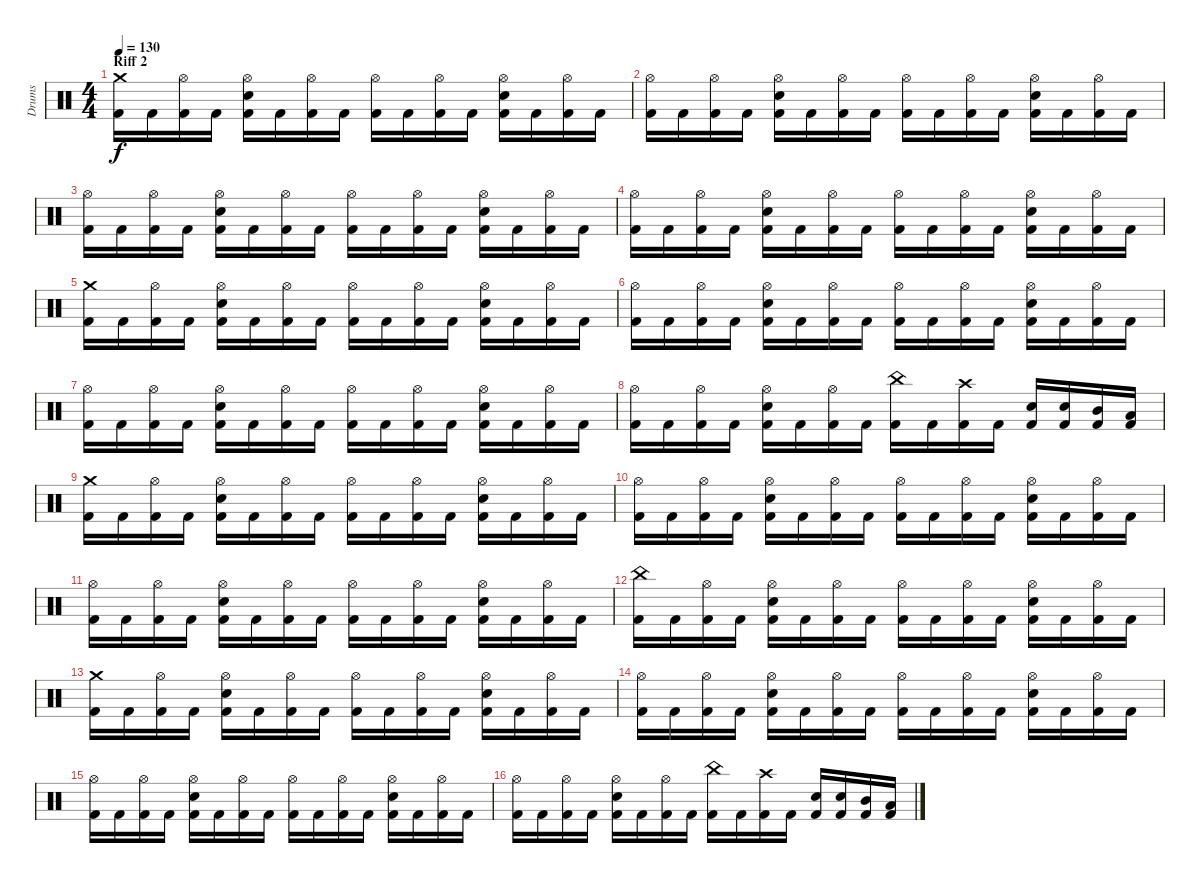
\track ("Drums" "Drums") {instrument percussion}
\staff {score}
\articulation defaults
\ts (4 4)
\section ("" "Riff 2")
\tempo 130
\clef neutral
\ks c
("Kick (hit) 2" "Crash medium (hit)").16{dy f} "Kick (hit) 2".16 ("Kick (hit) 2" "Hi-Hat (open)").16 "Kick (hit) 2".16 ("Kick (hit) 2" "Snare (hit) 2" "Hi-Hat (open)").16 "Kick (hit) 2".16 ("Kick (hit) 2" "Hi-Hat (open)").16 "Kick (hit) 2".16 ("Kick (hit) 2" "Hi-Hat (open)").16 "Kick (hit) 2".16 ("Kick (hit) 2" "Hi-Hat (open)").16 "Kick (hit) 2".16 ("Kick (hit) 2" "Snare (hit) 2" "Hi-Hat (open)").16 "Kick (hit) 2".16 ("Kick (hit) 2" "Hi-Hat (open)").16 "Kick (hit) 2".16 |
("Kick (hit) 2" "Hi-Hat (open)").16 "Kick (hit) 2".16 ("Kick (hit) 2" "Hi-Hat (open)").16 "Kick (hit) 2".16 ("Kick (hit) 2" "Snare (hit) 2" "Hi-Hat (open)").16 "Kick (hit) 2".16 ("Kick (hit) 2" "Hi-Hat (open)").16 "Kick (hit) 2".16 ("Kick (hit) 2" "Hi-Hat (open)").16 "Kick (hit) 2".16 ("Kick (hit) 2" "Hi-Hat (open)").16 "Kick (hit) 2".16 ("Kick (hit) 2" "Snare (hit) 2" "Hi-Hat (open)").16 "Kick (hit) 2".16 ("Kick (hit) 2" "Hi-Hat (open)").16 "Kick (hit) 2".16 |
("Kick (hit) 2" "Hi-Hat (open)").16 "Kick (hit) 2".16 ("Kick (hit) 2" "Hi-Hat (open)").16 "Kick (hit) 2".16 ("Kick (hit) 2" "Snare (hit) 2" "Hi-Hat (open)").16 "Kick (hit) 2".16 ("Kick (hit) 2" "Hi-Hat (open)").16 "Kick (hit) 2".16 ("Kick (hit) 2" "Hi-Hat (open)").16 "Kick (hit) 2".16 ("Kick (hit) 2" "Hi-Hat (open)").16 "Kick (hit) 2".16 ("Kick (hit) 2" "Snare (hit) 2" "Hi-Hat (open)").16 "Kick (hit) 2".16 ("Kick (hit) 2" "Hi-Hat (open)").16 "Kick (hit) 2".16 |
("Kick (hit) 2" "Hi-Hat (open)").16 "Kick (hit) 2".16 ("Kick (hit) 2" "Hi-Hat (open)").16 "Kick (hit) 2".16 ("Kick (hit) 2" "Snare (hit) 2" "Hi-Hat (open)").16 "Kick (hit) 2".16 ("Kick (hit) 2" "Hi-Hat (open)").16 "Kick (hit) 2".16 ("Kick (hit) 2" "Hi-Hat (open)").16 "Kick (hit) 2".16 ("Kick (hit) 2" "Hi-Hat (open)").16 "Kick (hit) 2".16 ("Kick (hit) 2" "Snare (hit) 2" "Hi-Hat (open)").16 "Kick (hit) 2".16 ("Kick (hit) 2" "Hi-Hat (open)").16 "Kick (hit) 2".16 |
("Kick (hit) 2" "Crash medium (hit)").16 "Kick (hit) 2".16 ("Kick (hit) 2" "Hi-Hat (open)").16 "Kick (hit) 2".16 ("Kick (hit) 2" "Snare (hit) 2" "Hi-Hat (open)").16 "Kick (hit) 2".16 ("Kick (hit) 2" "Hi-Hat (open)").16 "Kick (hit) 2".16 ("Kick (hit) 2" "Hi-Hat (open)").16 "Kick (hit) 2".16 ("Kick (hit) 2" "Hi-Hat (open)").16 "Kick (hit) 2".16 ("Kick (hit) 2" "Snare (hit) 2" "Hi-Hat (open)").16 "Kick (hit) 2".16 ("Kick (hit) 2" "Hi-Hat (open)").16 "Kick (hit) 2".16 |
("Kick (hit) 2" "Hi-Hat (open)").16 "Kick (hit) 2".16 ("Kick (hit) 2" "Hi-Hat (open)").16 "Kick (hit) 2".16 ("Kick (hit) 2" "Snare (hit) 2" "Hi-Hat (open)").16 "Kick (hit) 2".16 ("Kick (hit) 2" "Hi-Hat (open)").16 "Kick (hit) 2".16 ("Kick (hit) 2" "Hi-Hat (open)").16 "Kick (hit) 2".16 ("Kick (hit) 2" "Hi-Hat (open)").16 "Kick (hit) 2".16 ("Kick (hit) 2" "Snare (hit) 2" "Hi-Hat (open)").16 "Kick (hit) 2".16 ("Kick (hit) 2" "Hi-Hat (open)").16 "Kick (hit) 2".16 |
("Kick (hit) 2" "Hi-Hat (open)").16 "Kick (hit) 2".16 ("Kick (hit) 2" "Hi-Hat (open)").16 "Kick (hit) 2".16 ("Kick (hit) 2" "Snare (hit) 2" "Hi-Hat (open)").16 "Kick (hit) 2".16 ("Kick (hit) 2" "Hi-Hat (open)").16 "Kick (hit) 2".16 ("Kick (hit) 2" "Hi-Hat (open)").16 "Kick (hit) 2".16 ("Kick (hit) 2" "Hi-Hat (open)").16 "Kick (hit) 2".16 ("Kick (hit) 2" "Snare (hit) 2" "Hi-Hat (open)").16 "Kick (hit) 2".16 ("Kick (hit) 2" "Hi-Hat (open)").16 "Kick (hit) 2".16 |
("Kick (hit) 2" "Hi-Hat (open)").16 "Kick (hit) 2".16 ("Kick (hit) 2" "Hi-Hat (open)").16 "Kick (hit) 2".16 ("Kick (hit) 2" "Snare (hit) 2" "Hi-Hat (open)").16 "Kick (hit) 2".16 ("Kick (hit) 2" "Hi-Hat (open)").16 "Kick (hit) 2".16 ("Kick (hit) 2" "China (hit)").16 "Kick (hit) 2".16 ("Kick (hit) 2" "Crash high (hit)").16 "Kick (hit) 2".16 ("Kick (hit) 2" "Snare (hit) 2").16 ("Kick (hit) 2" "Snare (hit) 2").16 ("Kick (hit) 2" "Mid Tom (hit)").16 ("Kick (hit) 2" "Low Tom (hit)").16 |
("Kick (hit) 2" "Crash medium (hit)").16 "Kick (hit) 2".16 ("Kick (hit) 2" "Hi-Hat (open)").16 "Kick (hit) 2".16 ("Kick (hit) 2" "Snare (hit) 2" "Hi-Hat (open)").16 "Kick (hit) 2".16 ("Kick (hit) 2" "Hi-Hat (open)").16 "Kick (hit) 2".16 ("Kick (hit) 2" "Hi-Hat (open)").16 "Kick (hit) 2".16 ("Kick (hit) 2" "Hi-Hat (open)").16 "Kick (hit) 2".16 ("Kick (hit) 2" "Snare (hit) 2" "Hi-Hat (open)").16 "Kick (hit) 2".16 ("Kick (hit) 2" "Hi-Hat (open)").16 "Kick (hit) 2".16 |
("Kick (hit) 2" "Hi-Hat (open)").16 "Kick (hit) 2".16 ("Kick (hit) 2" "Hi-Hat (open)").16 "Kick (hit) 2".16 ("Kick (hit) 2" "Snare (hit) 2" "Hi-Hat (open)").16 "Kick (hit) 2".16 ("Kick (hit) 2" "Hi-Hat (open)").16 "Kick (hit) 2".16 ("Kick (hit) 2" "Hi-Hat (open)").16 "Kick (hit) 2".16 ("Kick (hit) 2" "Hi-Hat (open)").16 "Kick (hit) 2".16 ("Kick (hit) 2" "Snare (hit) 2" "Hi-Hat (open)").16 "Kick (hit) 2".16 ("Kick (hit) 2" "Hi-Hat (open)").16 "Kick (hit) 2".16 |
("Kick (hit) 2" "Hi-Hat (open)").16 "Kick (hit) 2".16 ("Kick (hit) 2" "Hi-Hat (open)").16 "Kick (hit) 2".16 ("Kick (hit) 2" "Snare (hit) 2" "Hi-Hat (open)").16 "Kick (hit) 2".16 ("Kick (hit) 2" "Hi-Hat (open)").16 "Kick (hit) 2".16 ("Kick (hit) 2" "Hi-Hat (open)").16 "Kick (hit) 2".16 ("Kick (hit) 2" "Hi-Hat (open)").16 "Kick (hit) 2".16 ("Kick (hit) 2" "Snare (hit) 2" "Hi-Hat (open)").16 "Kick (hit) 2".16 ("Kick (hit) 2" "Hi-Hat (open)").16 "Kick (hit) 2".16 |
("Kick (hit) 2" "China (hit)").16 "Kick (hit) 2".16 ("Kick (hit) 2" "Hi-Hat (open)").16 "Kick (hit) 2".16 ("Kick (hit) 2" "Snare (hit) 2" "Hi-Hat (open)").16 "Kick (hit) 2".16 ("Kick (hit) 2" "Hi-Hat (open)").16 "Kick (hit) 2".16 ("Kick (hit) 2" "Hi-Hat (open)").16 "Kick (hit) 2".16 ("Kick (hit) 2" "Hi-Hat (open)").16 "Kick (hit) 2".16 ("Kick (hit) 2" "Snare (hit) 2" "Hi-Hat (open)").16 "Kick (hit) 2".16 ("Kick (hit) 2" "Hi-Hat (open)").16 "Kick (hit) 2".16 |
("Kick (hit) 2" "Crash medium (hit)").16 "Kick (hit) 2".16 ("Kick (hit) 2" "Hi-Hat (open)").16 "Kick (hit) 2".16 ("Kick (hit) 2" "Snare (hit) 2" "Hi-Hat (open)").16 "Kick (hit) 2".16 ("Kick (hit) 2" "Hi-Hat (open)").16 "Kick (hit) 2".16 ("Kick (hit) 2" "Hi-Hat (open)").16 "Kick (hit) 2".16 ("Kick (hit) 2" "Hi-Hat (open)").16 "Kick (hit) 2".16 ("Kick (hit) 2" "Snare (hit) 2" "Hi-Hat (open)").16 "Kick (hit) 2".16 ("Kick (hit) 2" "Hi-Hat (open)").16 "Kick (hit) 2".16 |
("Kick (hit) 2" "Hi-Hat (open)").16 "Kick (hit) 2".16 ("Kick (hit) 2" "Hi-Hat (open)").16 "Kick (hit) 2".16 ("Kick (hit) 2" "Snare (hit) 2" "Hi-Hat (open)").16 "Kick (hit) 2".16 ("Kick (hit) 2" "Hi-Hat (open)").16 "Kick (hit) 2".16 ("Kick (hit) 2" "Hi-Hat (open)").16 "Kick (hit) 2".16 ("Kick (hit) 2" "Hi-Hat (open)").16 "Kick (hit) 2".16 ("Kick (hit) 2" "Snare (hit) 2" "Hi-Hat (open)").16 "Kick (hit) 2".16 ("Kick (hit) 2" "Hi-Hat (open)").16 "Kick (hit) 2".16 |
("Kick (hit) 2" "Hi-Hat (open)").16 "Kick (hit) 2".16 ("Kick (hit) 2" "Hi-Hat (open)").16 "Kick (hit) 2".16 ("Kick (hit) 2" "Snare (hit) 2" "Hi-Hat (open)").16 "Kick (hit) 2".16 ("Kick (hit) 2" "Hi-Hat (open)").16 "Kick (hit) 2".16 ("Kick (hit) 2" "Hi-Hat (open)").16 "Kick (hit) 2".16 ("Kick (hit) 2" "Hi-Hat (open)").16 "Kick (hit) 2".16 ("Kick (hit) 2" "Snare (hit) 2" "Hi-Hat (open)").16 "Kick (hit) 2".16 ("Kick (hit) 2" "Hi-Hat (open)").16 "Kick (hit) 2".16 |
("Kick (hit) 2" "Hi-Hat (open)").16 "Kick (hit) 2".16 ("Kick (hit) 2" "Hi-Hat (open)").16 "Kick (hit) 2".16 ("Kick (hit) 2" "Snare (hit) 2" "Hi-Hat (open)").16 "Kick (hit) 2".16 ("Kick (hit) 2" "Hi-Hat (open)").16 "Kick (hit) 2".16 ("Kick (hit) 2" "China (hit)").16 "Kick (hit) 2".16 ("Kick (hit) 2" "Crash high (hit)").16 "Kick (hit) 2".16 ("Kick (hit) 2" "Snare (hit) 2").16 ("Kick (hit) 2" "Snare (hit) 2").16 ("Kick (hit) 2" "Mid Tom (hit)").16 ("Kick (hit) 2" "Low Tom (hit)").16
